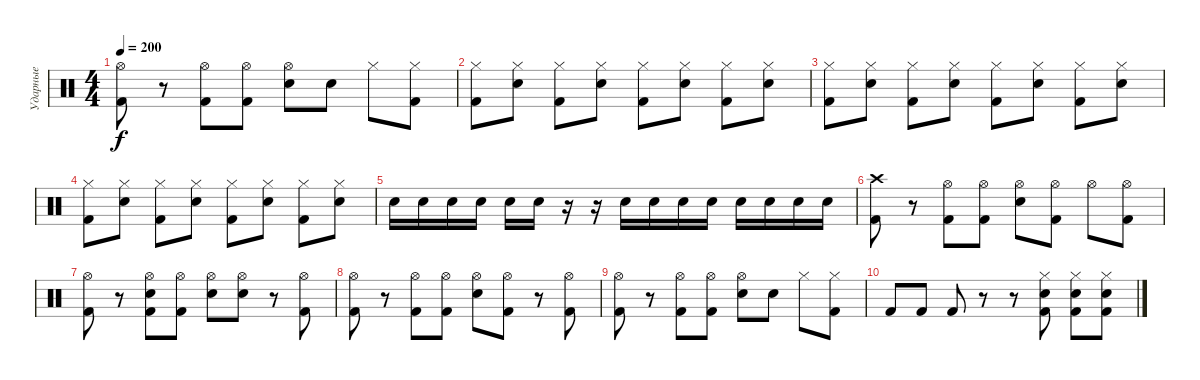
\track ("Ударные" "Ударные") {instrument percussion}
\staff {score}
\articulation defaults
\ts (4 4)
\tempo 200
\clef neutral
\ks c
("Kick (hit) 2" "Hi-Hat (open)").8{dy f} r.8 ("Kick (hit) 2" "Hi-Hat (open)").8 ("Kick (hit) 2" "Hi-Hat (open)").8 ("Electric Snare (hit)" "Hi-Hat (open)").8 "Electric Snare (hit)".8 "Hi-Hat (closed)".8 ("Kick (hit) 2" "Hi-Hat (closed)").8 |
("Kick (hit) 2" "Hi-Hat (closed)").8 ("Electric Snare (hit)" "Hi-Hat (closed)").8 ("Kick (hit) 2" "Hi-Hat (closed)").8 ("Electric Snare (hit)" "Hi-Hat (closed)").8 ("Kick (hit) 2" "Hi-Hat (closed)").8 ("Electric Snare (hit)" "Hi-Hat (closed)").8 ("Kick (hit) 2" "Hi-Hat (closed)").8 ("Electric Snare (hit)" "Hi-Hat (closed)").8 |
("Kick (hit) 2" "Hi-Hat (closed)").8 ("Electric Snare (hit)" "Hi-Hat (closed)").8 ("Kick (hit) 2" "Hi-Hat (closed)").8 ("Electric Snare (hit)" "Hi-Hat (closed)").8 ("Kick (hit) 2" "Hi-Hat (closed)").8 ("Electric Snare (hit)" "Hi-Hat (closed)").8 ("Kick (hit) 2" "Hi-Hat (closed)").8 ("Electric Snare (hit)" "Hi-Hat (closed)").8 |
("Kick (hit) 2" "Hi-Hat (closed)").8 ("Electric Snare (hit)" "Hi-Hat (closed)").8 ("Kick (hit) 2" "Hi-Hat (closed)").8 ("Electric Snare (hit)" "Hi-Hat (closed)").8 ("Kick (hit) 2" "Hi-Hat (closed)").8 ("Electric Snare (hit)" "Hi-Hat (closed)").8 ("Kick (hit) 2" "Hi-Hat (closed)").8 ("Electric Snare (hit)" "Hi-Hat (closed)").8 |
"Electric Snare (hit)".16 "Electric Snare (hit)".16 "Electric Snare (hit)".16 "Electric Snare (hit)".16 "Electric Snare (hit)".16 "Electric Snare (hit)".16 r.16 r.16 "Electric Snare (hit)".16 "Electric Snare (hit)".16 "Electric Snare (hit)".16 "Electric Snare (hit)".16 "Electric Snare (hit)".16 "Electric Snare (hit)".16 "Electric Snare (hit)".16 "Electric Snare (hit)".16 |
("Kick (hit) 2" "Crash high (hit)").8 r.8 ("Kick (hit) 2" "Hi-Hat (open)").8 ("Kick (hit) 2" "Hi-Hat (open)").8 ("Electric Snare (hit)" "Hi-Hat (open)").8 ("Kick (hit) 2" "Hi-Hat (open)").8 "Hi-Hat (open)".8 ("Kick (hit) 2" "Hi-Hat (open)").8 |
("Kick (hit) 2" "Hi-Hat (open)").8 r.8 ("Kick (hit) 2" "Hi-Hat (open)" "Snare (hit)").8 ("Kick (hit) 2" "Hi-Hat (open)").8 ("Electric Snare (hit)" "Hi-Hat (open)").8 ("Electric Snare (hit)" "Hi-Hat (open)").8 r.8 ("Kick (hit) 2" "Hi-Hat (open)").8 |
("Kick (hit) 2" "Hi-Hat (open)").8 r.8 ("Kick (hit) 2" "Hi-Hat (open)").8 ("Kick (hit) 2" "Hi-Hat (open)").8 ("Electric Snare (hit)" "Hi-Hat (open)").8 ("Kick (hit) 2" "Hi-Hat (open)").8 r.8 ("Kick (hit) 2" "Hi-Hat (open)").8 |
("Kick (hit) 2" "Hi-Hat (open)").8 r.8 ("Kick (hit) 2" "Hi-Hat (open)").8 ("Kick (hit) 2" "Hi-Hat (open)").8 ("Electric Snare (hit)" "Hi-Hat (open)").8 "Electric Snare (hit)".8 "Hi-Hat (closed)".8 ("Kick (hit) 2" "Hi-Hat (closed)").8 |
"Kick (hit) 2".8 "Kick (hit) 2".8 "Kick (hit) 2".8 r.8 r.8 ("Electric Snare (hit)" "Hi-Hat (closed)" "Kick (hit) 2").8 ("Electric Snare (hit)" "Hi-Hat (closed)" "Kick (hit) 2").8 ("Electric Snare (hit)" "Hi-Hat (closed)" "Kick (hit) 2").8
